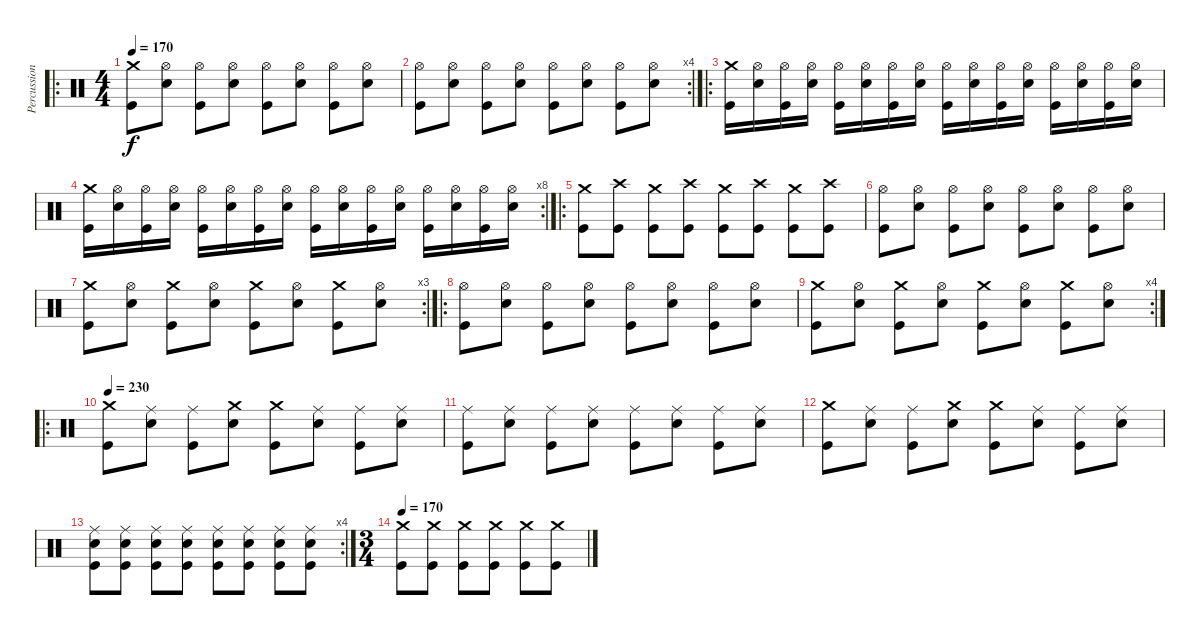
\track ("Percussion" "Percussion") {instrument percussion}
\staff {score}
\articulation defaults
\ro
\ts (4 4)
\tempo 170
\clef neutral
\ks c
("Crash medium (hit)" "Kick (hit)").8{dy f} ("Hi-Hat (open)" "Electric Snare (hit)").8 ("Hi-Hat (open)" "Kick (hit)").8 ("Hi-Hat (open)" "Electric Snare (hit)").8 ("Hi-Hat (open)" "Kick (hit)").8 ("Hi-Hat (open)" "Electric Snare (hit)").8 ("Hi-Hat (open)" "Kick (hit)").8 ("Hi-Hat (open)" "Electric Snare (hit)").8 |
\rc 4
("Hi-Hat (open)" "Kick (hit)").8 ("Hi-Hat (open)" "Electric Snare (hit)").8 ("Hi-Hat (open)" "Kick (hit)").8 ("Hi-Hat (open)" "Electric Snare (hit)").8 ("Hi-Hat (open)" "Kick (hit)").8 ("Hi-Hat (open)" "Electric Snare (hit)").8 ("Hi-Hat (open)" "Kick (hit)").8 ("Hi-Hat (open)" "Electric Snare (hit)").8 |
\ro
("Crash medium (hit)" "Kick (hit)").16 ("Hi-Hat (open)" "Electric Snare (hit)").16 ("Hi-Hat (open)" "Kick (hit)").16 ("Hi-Hat (open)" "Electric Snare (hit)").16 ("Hi-Hat (open)" "Kick (hit)").16 ("Hi-Hat (open)" "Electric Snare (hit)").16 ("Hi-Hat (open)" "Kick (hit)").16 ("Hi-Hat (open)" "Electric Snare (hit)").16 ("Hi-Hat (open)" "Kick (hit)").16 ("Hi-Hat (open)" "Electric Snare (hit)").16 ("Hi-Hat (open)" "Kick (hit)").16 ("Hi-Hat (open)" "Electric Snare (hit)").16 ("Hi-Hat (open)" "Kick (hit)").16 ("Hi-Hat (open)" "Electric Snare (hit)").16 ("Hi-Hat (open)" "Kick (hit)").16 ("Hi-Hat (open)" "Electric Snare (hit)").16 |
\rc 8
("Crash medium (hit)" "Kick (hit)").16 ("Hi-Hat (open)" "Electric Snare (hit)").16 ("Hi-Hat (open)" "Kick (hit)").16 ("Hi-Hat (open)" "Electric Snare (hit)").16 ("Hi-Hat (open)" "Kick (hit)").16 ("Hi-Hat (open)" "Electric Snare (hit)").16 ("Hi-Hat (open)" "Kick (hit)").16 ("Hi-Hat (open)" "Electric Snare (hit)").16 ("Hi-Hat (open)" "Kick (hit)").16 ("Hi-Hat (open)" "Electric Snare (hit)").16 ("Hi-Hat (open)" "Kick (hit)").16 ("Hi-Hat (open)" "Electric Snare (hit)").16 ("Hi-Hat (open)" "Kick (hit)").16 ("Hi-Hat (open)" "Electric Snare (hit)").16 ("Hi-Hat (open)" "Kick (hit)").16 ("Hi-Hat (open)" "Electric Snare (hit)").16 |
\ro
("Crash medium (hit)" "Kick (hit)").8 ("Crash high (hit)" "Kick (hit)").8 ("Crash medium (hit)" "Kick (hit)").8 ("Crash high (hit)" "Kick (hit)").8 ("Crash medium (hit)" "Kick (hit)").8 ("Crash high (hit)" "Kick (hit)").8 ("Crash medium (hit)" "Kick (hit)").8 ("Crash high (hit)" "Kick (hit)").8 |
("Hi-Hat (open)" "Kick (hit)").8 ("Hi-Hat (open)" "Electric Snare (hit)").8 ("Hi-Hat (open)" "Kick (hit)").8 ("Hi-Hat (open)" "Electric Snare (hit)").8 ("Hi-Hat (open)" "Kick (hit)").8 ("Hi-Hat (open)" "Electric Snare (hit)").8 ("Hi-Hat (open)" "Kick (hit)").8 ("Hi-Hat (open)" "Electric Snare (hit)").8 |
\rc 3
("Crash medium (hit)" "Kick (hit)").8 ("Hi-Hat (open)" "Electric Snare (hit)").8 ("Crash medium (hit)" "Kick (hit)").8 ("Hi-Hat (open)" "Electric Snare (hit)").8 ("Crash medium (hit)" "Kick (hit)").8 ("Hi-Hat (open)" "Electric Snare (hit)").8 ("Crash medium (hit)" "Kick (hit)").8 ("Hi-Hat (open)" "Electric Snare (hit)").8 |
\ro
("Hi-Hat (open)" "Kick (hit)").8 ("Hi-Hat (open)" "Electric Snare (hit)").8 ("Hi-Hat (open)" "Kick (hit)").8 ("Hi-Hat (open)" "Electric Snare (hit)").8 ("Hi-Hat (open)" "Kick (hit)").8 ("Hi-Hat (open)" "Electric Snare (hit)").8 ("Hi-Hat (open)" "Kick (hit)").8 ("Hi-Hat (open)" "Electric Snare (hit)").8 |
\rc 4
("Crash medium (hit)" "Kick (hit)").8 ("Hi-Hat (open)" "Electric Snare (hit)").8 ("Crash medium (hit)" "Kick (hit)").8 ("Hi-Hat (open)" "Electric Snare (hit)").8 ("Crash medium (hit)" "Kick (hit)").8 ("Hi-Hat (open)" "Electric Snare (hit)").8 ("Crash medium (hit)" "Kick (hit)").8 ("Hi-Hat (open)" "Electric Snare (hit)").8 |
\ro
\tempo 230
("Crash medium (hit)" "Kick (hit)").8 ("Ride (middle)" "Electric Snare (hit)").8 ("Ride (middle)" "Kick (hit)").8 ("Crash medium (hit)" "Electric Snare (hit)").8 ("Crash medium (hit)" "Kick (hit)").8 ("Ride (middle)" "Electric Snare (hit)").8 ("Ride (middle)" "Kick (hit)").8 ("Ride (middle)" "Electric Snare (hit)").8 |
("Ride (middle)" "Kick (hit)").8 ("Ride (middle)" "Electric Snare (hit)").8 ("Ride (middle)" "Kick (hit)").8 ("Ride (middle)" "Electric Snare (hit)").8 ("Ride (middle)" "Kick (hit)").8 ("Ride (middle)" "Electric Snare (hit)").8 ("Ride (middle)" "Kick (hit)").8 ("Ride (middle)" "Electric Snare (hit)").8 |
("Crash medium (hit)" "Kick (hit)").8 ("Ride (middle)" "Electric Snare (hit)").8 ("Ride (middle)" "Kick (hit)").8 ("Crash medium (hit)" "Electric Snare (hit)").8 ("Crash medium (hit)" "Kick (hit)").8 ("Ride (middle)" "Electric Snare (hit)").8 ("Ride (middle)" "Kick (hit)").8 ("Ride (middle)" "Electric Snare (hit)").8 |
\rc 4
("Ride (middle)" "Electric Snare (hit)" "Kick (hit)").8 ("Ride (middle)" "Electric Snare (hit)" "Kick (hit)").8 ("Ride (middle)" "Electric Snare (hit)" "Kick (hit)").8 ("Ride (middle)" "Electric Snare (hit)" "Kick (hit)").8 ("Ride (middle)" "Electric Snare (hit)" "Kick (hit)").8 ("Ride (middle)" "Electric Snare (hit)" "Kick (hit)").8 ("Ride (middle)" "Electric Snare (hit)" "Kick (hit)").8 ("Ride (middle)" "Electric Snare (hit)" "Kick (hit)").8 |
\ts (3 4)
\tempo 170
("Crash medium (hit)" "Kick (hit)").8 ("Crash medium (hit)" "Kick (hit)").8 ("Crash medium (hit)" "Kick (hit)").8 ("Crash medium (hit)" "Kick (hit)").8 ("Crash medium (hit)" "Kick (hit)").8 ("Crash medium (hit)" "Kick (hit)").8
